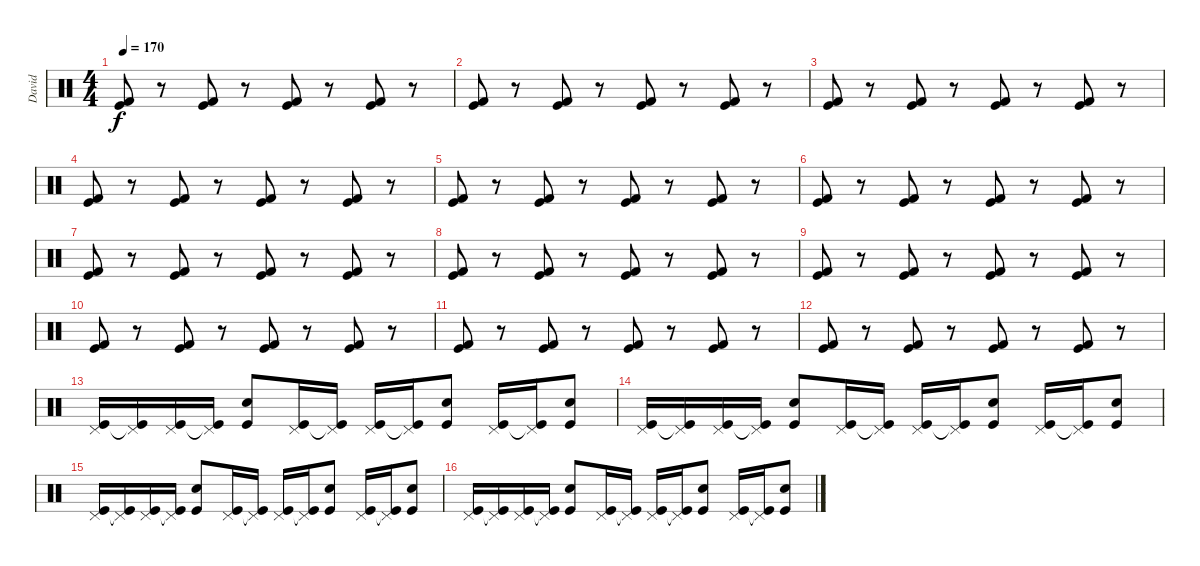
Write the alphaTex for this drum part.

\track ("David" "David") {instrument percussion}
\staff {score}
\articulation defaults
\ts (4 4)
\tempo 170
\clef neutral
\ks c
("Kick (hit) 2" "Kick (hit)").8{dy f} r.8 ("Kick (hit) 2" "Kick (hit)").8 r.8 ("Kick (hit) 2" "Kick (hit)").8 r.8 ("Kick (hit) 2" "Kick (hit)").8 r.8 |
("Kick (hit) 2" "Kick (hit)").8 r.8 ("Kick (hit) 2" "Kick (hit)").8 r.8 ("Kick (hit) 2" "Kick (hit)").8 r.8 ("Kick (hit) 2" "Kick (hit)").8 r.8 |
("Kick (hit) 2" "Kick (hit)").8 r.8 ("Kick (hit) 2" "Kick (hit)").8 r.8 ("Kick (hit) 2" "Kick (hit)").8 r.8 ("Kick (hit) 2" "Kick (hit)").8 r.8 |
("Kick (hit) 2" "Kick (hit)").8 r.8 ("Kick (hit) 2" "Kick (hit)").8 r.8 ("Kick (hit) 2" "Kick (hit)").8 r.8 ("Kick (hit) 2" "Kick (hit)").8 r.8 |
("Kick (hit) 2" "Kick (hit)").8 r.8 ("Kick (hit) 2" "Kick (hit)").8 r.8 ("Kick (hit) 2" "Kick (hit)").8 r.8 ("Kick (hit) 2" "Kick (hit)").8 r.8 |
("Kick (hit) 2" "Kick (hit)").8 r.8 ("Kick (hit) 2" "Kick (hit)").8 r.8 ("Kick (hit) 2" "Kick (hit)").8 r.8 ("Kick (hit) 2" "Kick (hit)").8 r.8 |
("Kick (hit) 2" "Kick (hit)").8 r.8 ("Kick (hit) 2" "Kick (hit)").8 r.8 ("Kick (hit) 2" "Kick (hit)").8 r.8 ("Kick (hit) 2" "Kick (hit)").8 r.8 |
("Kick (hit) 2" "Kick (hit)").8 r.8 ("Kick (hit) 2" "Kick (hit)").8 r.8 ("Kick (hit) 2" "Kick (hit)").8 r.8 ("Kick (hit) 2" "Kick (hit)").8 r.8 |
("Kick (hit) 2" "Kick (hit)").8 r.8 ("Kick (hit) 2" "Kick (hit)").8 r.8 ("Kick (hit) 2" "Kick (hit)").8 r.8 ("Kick (hit) 2" "Kick (hit)").8 r.8 |
("Kick (hit) 2" "Kick (hit)").8 r.8 ("Kick (hit) 2" "Kick (hit)").8 r.8 ("Kick (hit) 2" "Kick (hit)").8 r.8 ("Kick (hit) 2" "Kick (hit)").8 r.8 |
("Kick (hit) 2" "Kick (hit)").8 r.8 ("Kick (hit) 2" "Kick (hit)").8 r.8 ("Kick (hit) 2" "Kick (hit)").8 r.8 ("Kick (hit) 2" "Kick (hit)").8 r.8 |
("Kick (hit) 2" "Kick (hit)").8 r.8 ("Kick (hit) 2" "Kick (hit)").8 r.8 ("Kick (hit) 2" "Kick (hit)").8 r.8 ("Kick (hit) 2" "Kick (hit)").8 r.8 |
("Pedal Hi-Hat (hit)" "Kick (hit)").16 ("Pedal Hi-Hat (hit)" "Kick (hit)"{t}).16 ("Pedal Hi-Hat (hit)" "Kick (hit)").16 ("Pedal Hi-Hat (hit)" "Kick (hit)"{t}).16 ("Snare (hit) 2" "Kick (hit)").8 ("Pedal Hi-Hat (hit)" "Kick (hit)").16 ("Pedal Hi-Hat (hit)" "Kick (hit)"{t}).16 ("Pedal Hi-Hat (hit)" "Kick (hit)").16 ("Pedal Hi-Hat (hit)" "Kick (hit)"{t}).16 ("Snare (hit) 2" "Kick (hit)").8 ("Pedal Hi-Hat (hit)" "Kick (hit)").16 ("Pedal Hi-Hat (hit)" "Kick (hit)"{t}).16 ("Snare (hit) 2" "Kick (hit)").8 |
("Pedal Hi-Hat (hit)" "Kick (hit)").16 ("Pedal Hi-Hat (hit)" "Kick (hit)"{t}).16 ("Pedal Hi-Hat (hit)" "Kick (hit)").16 ("Pedal Hi-Hat (hit)" "Kick (hit)"{t}).16 ("Snare (hit) 2" "Kick (hit)").8 ("Pedal Hi-Hat (hit)" "Kick (hit)").16 ("Pedal Hi-Hat (hit)" "Kick (hit)"{t}).16 ("Pedal Hi-Hat (hit)" "Kick (hit)").16 ("Pedal Hi-Hat (hit)" "Kick (hit)"{t}).16 ("Snare (hit) 2" "Kick (hit)").8 ("Pedal Hi-Hat (hit)" "Kick (hit)").16 ("Pedal Hi-Hat (hit)" "Kick (hit)"{t}).16 ("Snare (hit) 2" "Kick (hit)").8 |
("Pedal Hi-Hat (hit)" "Kick (hit)").16 ("Pedal Hi-Hat (hit)" "Kick (hit)"{t}).16 ("Pedal Hi-Hat (hit)" "Kick (hit)").16 ("Pedal Hi-Hat (hit)" "Kick (hit)"{t}).16 ("Snare (hit) 2" "Kick (hit)").8 ("Pedal Hi-Hat (hit)" "Kick (hit)").16 ("Pedal Hi-Hat (hit)" "Kick (hit)"{t}).16 ("Pedal Hi-Hat (hit)" "Kick (hit)").16 ("Pedal Hi-Hat (hit)" "Kick (hit)"{t}).16 ("Snare (hit) 2" "Kick (hit)").8 ("Pedal Hi-Hat (hit)" "Kick (hit)").16 ("Pedal Hi-Hat (hit)" "Kick (hit)"{t}).16 ("Snare (hit) 2" "Kick (hit)").8 |
("Pedal Hi-Hat (hit)" "Kick (hit)").16 ("Pedal Hi-Hat (hit)" "Kick (hit)"{t}).16 ("Pedal Hi-Hat (hit)" "Kick (hit)").16 ("Pedal Hi-Hat (hit)" "Kick (hit)"{t}).16 ("Snare (hit) 2" "Kick (hit)").8 ("Pedal Hi-Hat (hit)" "Kick (hit)").16 ("Pedal Hi-Hat (hit)" "Kick (hit)"{t}).16 ("Pedal Hi-Hat (hit)" "Kick (hit)").16 ("Pedal Hi-Hat (hit)" "Kick (hit)"{t}).16 ("Snare (hit) 2" "Kick (hit)").8 ("Pedal Hi-Hat (hit)" "Kick (hit)").16 ("Pedal Hi-Hat (hit)" "Kick (hit)"{t}).16 ("Snare (hit) 2" "Kick (hit)").8
